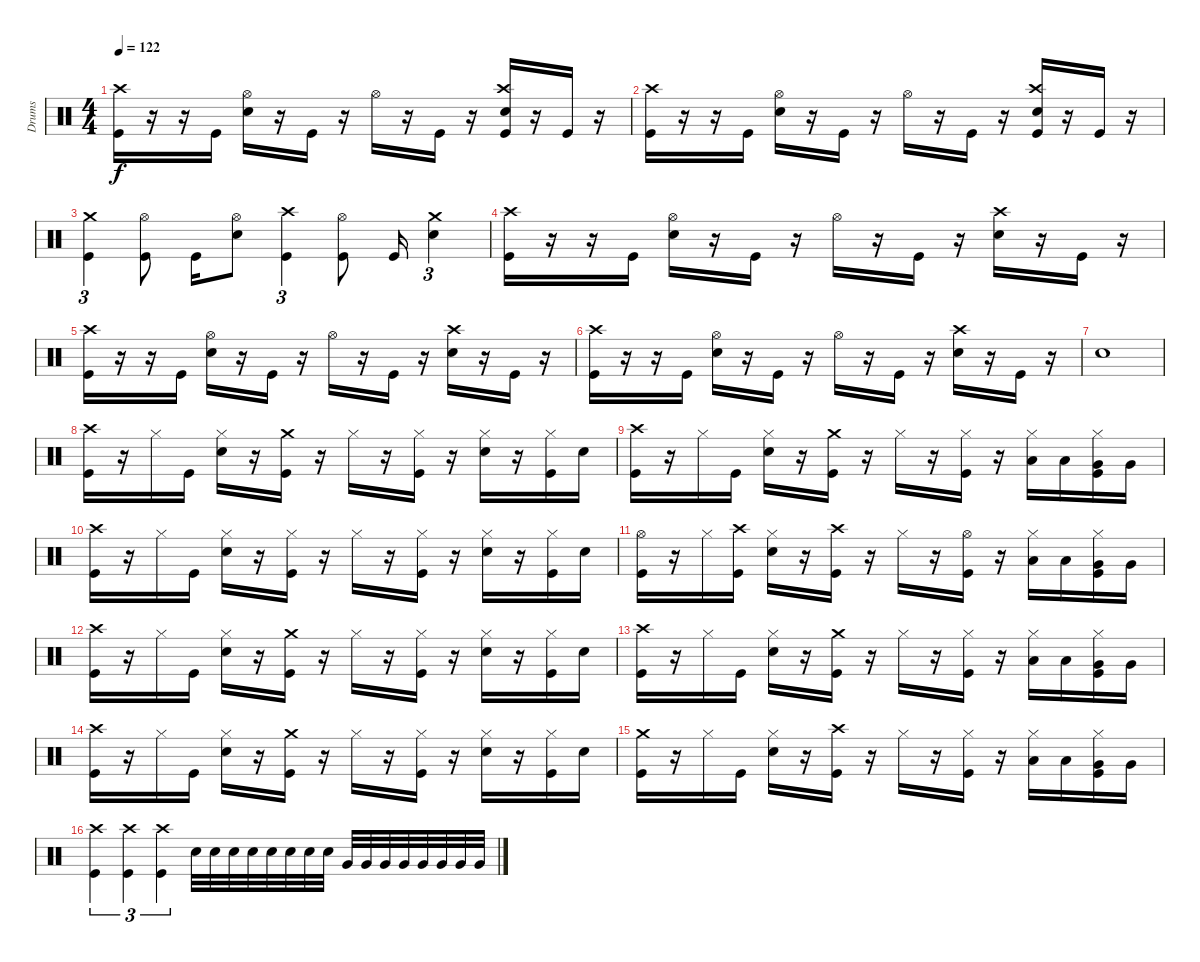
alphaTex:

\track ("Drums" "Drums") {instrument percussion}
\staff {score}
\articulation defaults
\ts (4 4)
\tempo 122
\clef neutral
\ks c
("Kick (hit)" "Crash high (hit)").16{dy f} r.16 r.16 "Kick (hit)".16 ("Snare (hit) 2" "Hi-Hat (open)").16 r.16 "Kick (hit)".16 r.16 "Hi-Hat (open)".16 r.16 "Kick (hit)".16 r.16 ("Snare (hit) 2" "Kick (hit)" "Crash high (hit)").16 r.16 "Kick (hit)".16 r.16 |
("Kick (hit)" "Crash high (hit)").16 r.16 r.16 "Kick (hit)".16 ("Snare (hit) 2" "Hi-Hat (open)").16 r.16 "Kick (hit)".16 r.16 "Hi-Hat (open)".16 r.16 "Kick (hit)".16 r.16 ("Snare (hit) 2" "Kick (hit)" "Crash high (hit)").16 r.16 "Kick (hit)".16 r.16 |
("Kick (hit)" "Crash medium (hit)").4{tu (3 2)} ("Kick (hit)" "Hi-Hat (open)").8 "Kick (hit)".16 ("Snare (hit) 2" "Hi-Hat (open)").8 ("Kick (hit)" "Crash high (hit)").4{tu (3 2)} ("Kick (hit)" "Hi-Hat (open)").8 "Kick (hit)".16 ("Snare (hit) 2" "Crash medium (hit)").4{tu (3 2)} |
("Kick (hit)" "Crash high (hit)").16 r.16 r.16 "Kick (hit)".16 ("Snare (hit) 2" "Hi-Hat (open)").16 r.16 "Kick (hit)".16 r.16 "Hi-Hat (open)".16 r.16 "Kick (hit)".16 r.16 ("Snare (hit) 2" "Crash high (hit)").16 r.16 "Kick (hit)".16 r.16 |
("Kick (hit)" "Crash high (hit)").16 r.16 r.16 "Kick (hit)".16 ("Snare (hit) 2" "Hi-Hat (open)").16 r.16 "Kick (hit)".16 r.16 "Hi-Hat (open)".16 r.16 "Kick (hit)".16 r.16 ("Snare (hit) 2" "Crash high (hit)").16 r.16 "Kick (hit)".16 r.16 |
("Kick (hit)" "Crash high (hit)").16 r.16 r.16 "Kick (hit)".16 ("Snare (hit) 2" "Hi-Hat (open)").16 r.16 "Kick (hit)".16 r.16 "Hi-Hat (open)".16 r.16 "Kick (hit)".16 r.16 ("Snare (hit) 2" "Crash high (hit)").16 r.16 "Kick (hit)".16 r.16 |
"Snare (hit) 2".1 |
("Kick (hit)" "Crash high (hit)").16 r.16 "Hi-Hat (closed)".16 "Kick (hit)".16 ("Snare (hit) 2" "Hi-Hat (closed)").16 r.16 ("Kick (hit)" "Crash medium (hit)").16 r.16 "Hi-Hat (closed)".16 r.16 ("Kick (hit)" "Hi-Hat (closed)").16 r.16 ("Snare (hit) 2" "Hi-Hat (closed)").16 r.16 ("Kick (hit)" "Hi-Hat (closed)").16 "Snare (hit) 2".16 |
("Kick (hit)" "Crash high (hit)").16 r.16 "Hi-Hat (closed)".16 "Kick (hit)".16 ("Snare (hit) 2" "Hi-Hat (closed)").16 r.16 ("Kick (hit)" "Crash medium (hit)").16 r.16 "Hi-Hat (closed)".16 r.16 ("Kick (hit)" "Hi-Hat (closed)").16 r.16 ("Low Tom (hit)" "Hi-Hat (closed)").16 "Low Tom (hit)".16 ("Very Low Tom (hit)" "Kick (hit)" "Hi-Hat (closed)").16 "Very Low Tom (hit)".16 |
("Kick (hit)" "Crash high (hit)").16 r.16 "Hi-Hat (closed)".16 "Kick (hit)".16 ("Snare (hit) 2" "Hi-Hat (closed)").16 r.16 ("Kick (hit)" "Hi-Hat (closed)").16 r.16 "Hi-Hat (closed)".16 r.16 ("Kick (hit)" "Hi-Hat (closed)").16 r.16 ("Snare (hit) 2" "Hi-Hat (closed)").16 r.16 ("Kick (hit)" "Hi-Hat (closed)").16 "Snare (hit) 2".16 |
("Kick (hit)" "Hi-Hat (open)").16 r.16 "Hi-Hat (closed)".16 ("Kick (hit)" "Crash high (hit)").16 ("Snare (hit) 2" "Hi-Hat (closed)").16 r.16 ("Kick (hit)" "Crash high (hit)").16 r.16 "Hi-Hat (closed)".16 r.16 ("Kick (hit)" "Hi-Hat (open)").16 r.16 ("Low Tom (hit)" "Hi-Hat (closed)").16 "Low Tom (hit)".16 ("Very Low Tom (hit)" "Kick (hit)" "Hi-Hat (closed)").16 "Very Low Tom (hit)".16 |
("Kick (hit)" "Crash high (hit)").16 r.16 "Hi-Hat (closed)".16 "Kick (hit)".16 ("Snare (hit) 2" "Hi-Hat (closed)").16 r.16 ("Kick (hit)" "Crash medium (hit)").16 r.16 "Hi-Hat (closed)".16 r.16 ("Kick (hit)" "Hi-Hat (closed)").16 r.16 ("Snare (hit) 2" "Hi-Hat (closed)").16 r.16 ("Kick (hit)" "Hi-Hat (closed)").16 "Snare (hit) 2".16 |
("Kick (hit)" "Crash high (hit)").16 r.16 "Hi-Hat (closed)".16 "Kick (hit)".16 ("Snare (hit) 2" "Hi-Hat (closed)").16 r.16 ("Kick (hit)" "Crash medium (hit)").16 r.16 "Hi-Hat (closed)".16 r.16 ("Kick (hit)" "Hi-Hat (closed)").16 r.16 ("Low Tom (hit)" "Hi-Hat (closed)").16 "Low Tom (hit)".16 ("Very Low Tom (hit)" "Kick (hit)" "Hi-Hat (closed)").16 "Very Low Tom (hit)".16 |
("Kick (hit)" "Crash high (hit)").16 r.16 "Hi-Hat (closed)".16 "Kick (hit)".16 ("Snare (hit) 2" "Hi-Hat (closed)").16 r.16 ("Kick (hit)" "Crash medium (hit)").16 r.16 "Hi-Hat (closed)".16 r.16 ("Kick (hit)" "Hi-Hat (closed)").16 r.16 ("Snare (hit) 2" "Hi-Hat (closed)").16 r.16 ("Kick (hit)" "Hi-Hat (closed)").16 "Snare (hit) 2".16 |
("Kick (hit)" "Crash medium (hit)").16 r.16 "Hi-Hat (closed)".16 "Kick (hit)".16 ("Snare (hit) 2" "Hi-Hat (closed)").16 r.16 ("Kick (hit)" "Crash high (hit)").16 r.16 "Hi-Hat (closed)".16 r.16 ("Kick (hit)" "Hi-Hat (closed)").16 r.16 ("Low Tom (hit)" "Hi-Hat (closed)").16 "Low Tom (hit)".16 ("Very Low Tom (hit)" "Kick (hit)" "Hi-Hat (closed)").16 "Very Low Tom (hit)".16 |
("Kick (hit)" "Crash high (hit)").4{tu (3 2)} ("Kick (hit)" "Crash high (hit)").4{tu (3 2)} ("Kick (hit)" "Crash high (hit)").4{tu (3 2)} "Snare (hit) 2".32 "Snare (hit) 2".32 "Snare (hit) 2".32 "Snare (hit) 2".32 "Snare (hit) 2".32 "Snare (hit) 2".32 "Snare (hit) 2".32 "Snare (hit) 2".32 "Very Low Tom (hit)".32 "Very Low Tom (hit)".32 "Very Low Tom (hit)".32 "Very Low Tom (hit)".32 "Very Low Tom (hit)".32 "Very Low Tom (hit)".32 "Very Low Tom (hit)".32 "Very Low Tom (hit)".32
